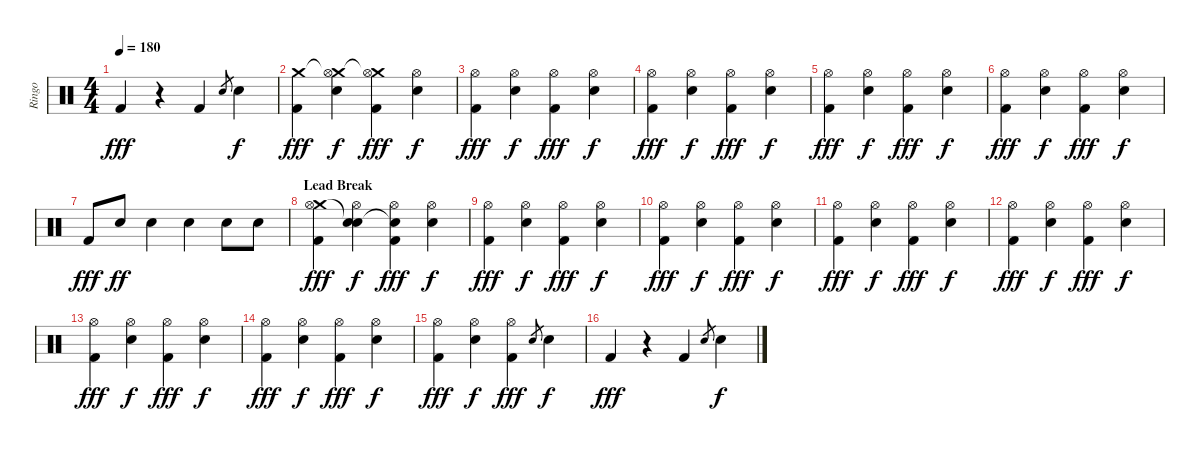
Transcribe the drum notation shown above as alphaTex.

\track ("Ringo" "Ringo") {instrument percussion}
\staff {score}
\articulation defaults
\ts (4 4)
\tempo 180
\clef neutral
\ks c "Kick (hit) 2".4{dy fff}
r.4 "Kick (hit) 2".4 "Snare (hit) 2".8{gr} "Snare (hit) 2".4{dy f} |
("Crash medium (hit)" "Kick (hit) 2").4{dy fff} ("Crash medium (hit)"{t} "Hi-Hat (open)" "Snare (hit) 2").4{dy f} ("Crash medium (hit)"{t} "Hi-Hat (open)" "Kick (hit) 2").4{dy fff} ("Hi-Hat (open)" "Snare (hit) 2").4{dy f} |
("Hi-Hat (open)" "Kick (hit) 2").4{dy fff} ("Hi-Hat (open)" "Snare (hit) 2").4{dy f} ("Hi-Hat (open)" "Kick (hit) 2").4{dy fff} ("Hi-Hat (open)" "Snare (hit) 2").4{dy f} |
("Hi-Hat (open)" "Kick (hit) 2").4{dy fff} ("Hi-Hat (open)" "Snare (hit) 2").4{dy f} ("Hi-Hat (open)" "Kick (hit) 2").4{dy fff} ("Hi-Hat (open)" "Snare (hit) 2").4{dy f} |
("Hi-Hat (open)" "Kick (hit) 2").4{dy fff} ("Hi-Hat (open)" "Snare (hit) 2").4{dy f} ("Hi-Hat (open)" "Kick (hit) 2").4{dy fff} ("Hi-Hat (open)" "Snare (hit) 2").4{dy f} |
("Hi-Hat (open)" "Kick (hit) 2").4{dy fff} ("Hi-Hat (open)" "Snare (hit) 2").4{dy f} ("Hi-Hat (open)" "Kick (hit) 2").4{dy fff} ("Hi-Hat (open)" "Snare (hit) 2").4{dy f} |
"Kick (hit) 2".8{dy fff} "Snare (hit) 2".8{dy ff} "Snare (hit) 2".4 "Snare (hit) 2".4 "Snare (hit) 2".8 "Snare (hit) 2".8 |
\section ("" "Lead Break")
("Crash medium (hit)" "Hi-Hat (open)" "Kick (hit) 2").4{dy fff} ("Snare (hit)"{t} "Hi-Hat (open)" "Snare (hit) 2").4{dy f} ("Snare (hit)"{t} "Hi-Hat (open)" "Kick (hit) 2").4{dy fff} ("Hi-Hat (open)" "Snare (hit) 2").4{dy f} |
("Hi-Hat (open)" "Kick (hit) 2").4{dy fff} ("Hi-Hat (open)" "Snare (hit) 2").4{dy f} ("Hi-Hat (open)" "Kick (hit) 2").4{dy fff} ("Hi-Hat (open)" "Snare (hit) 2").4{dy f} |
("Hi-Hat (open)" "Kick (hit) 2").4{dy fff} ("Hi-Hat (open)" "Snare (hit) 2").4{dy f} ("Hi-Hat (open)" "Kick (hit) 2").4{dy fff} ("Hi-Hat (open)" "Snare (hit) 2").4{dy f} |
("Hi-Hat (open)" "Kick (hit) 2").4{dy fff} ("Hi-Hat (open)" "Snare (hit) 2").4{dy f} ("Hi-Hat (open)" "Kick (hit) 2").4{dy fff} ("Hi-Hat (open)" "Snare (hit) 2").4{dy f} |
("Hi-Hat (open)" "Kick (hit) 2").4{dy fff} ("Hi-Hat (open)" "Snare (hit) 2").4{dy f} ("Hi-Hat (open)" "Kick (hit) 2").4{dy fff} ("Hi-Hat (open)" "Snare (hit) 2").4{dy f} |
("Hi-Hat (open)" "Kick (hit) 2").4{dy fff} ("Hi-Hat (open)" "Snare (hit) 2").4{dy f} ("Hi-Hat (open)" "Kick (hit) 2").4{dy fff} ("Hi-Hat (open)" "Snare (hit) 2").4{dy f} |
("Hi-Hat (open)" "Kick (hit) 2").4{dy fff} ("Hi-Hat (open)" "Snare (hit) 2").4{dy f} ("Hi-Hat (open)" "Kick (hit) 2").4{dy fff} ("Hi-Hat (open)" "Snare (hit) 2").4{dy f} |
("Hi-Hat (open)" "Kick (hit) 2").4{dy fff} ("Hi-Hat (open)" "Snare (hit) 2").4{dy f} ("Hi-Hat (open)" "Kick (hit) 2").4{dy fff} "Snare (hit) 2".8{gr} "Snare (hit) 2".4{dy f} |
"Kick (hit) 2".4{dy fff} r.4 "Kick (hit) 2".4 "Snare (hit) 2".8{gr} "Snare (hit) 2".4{dy f}
